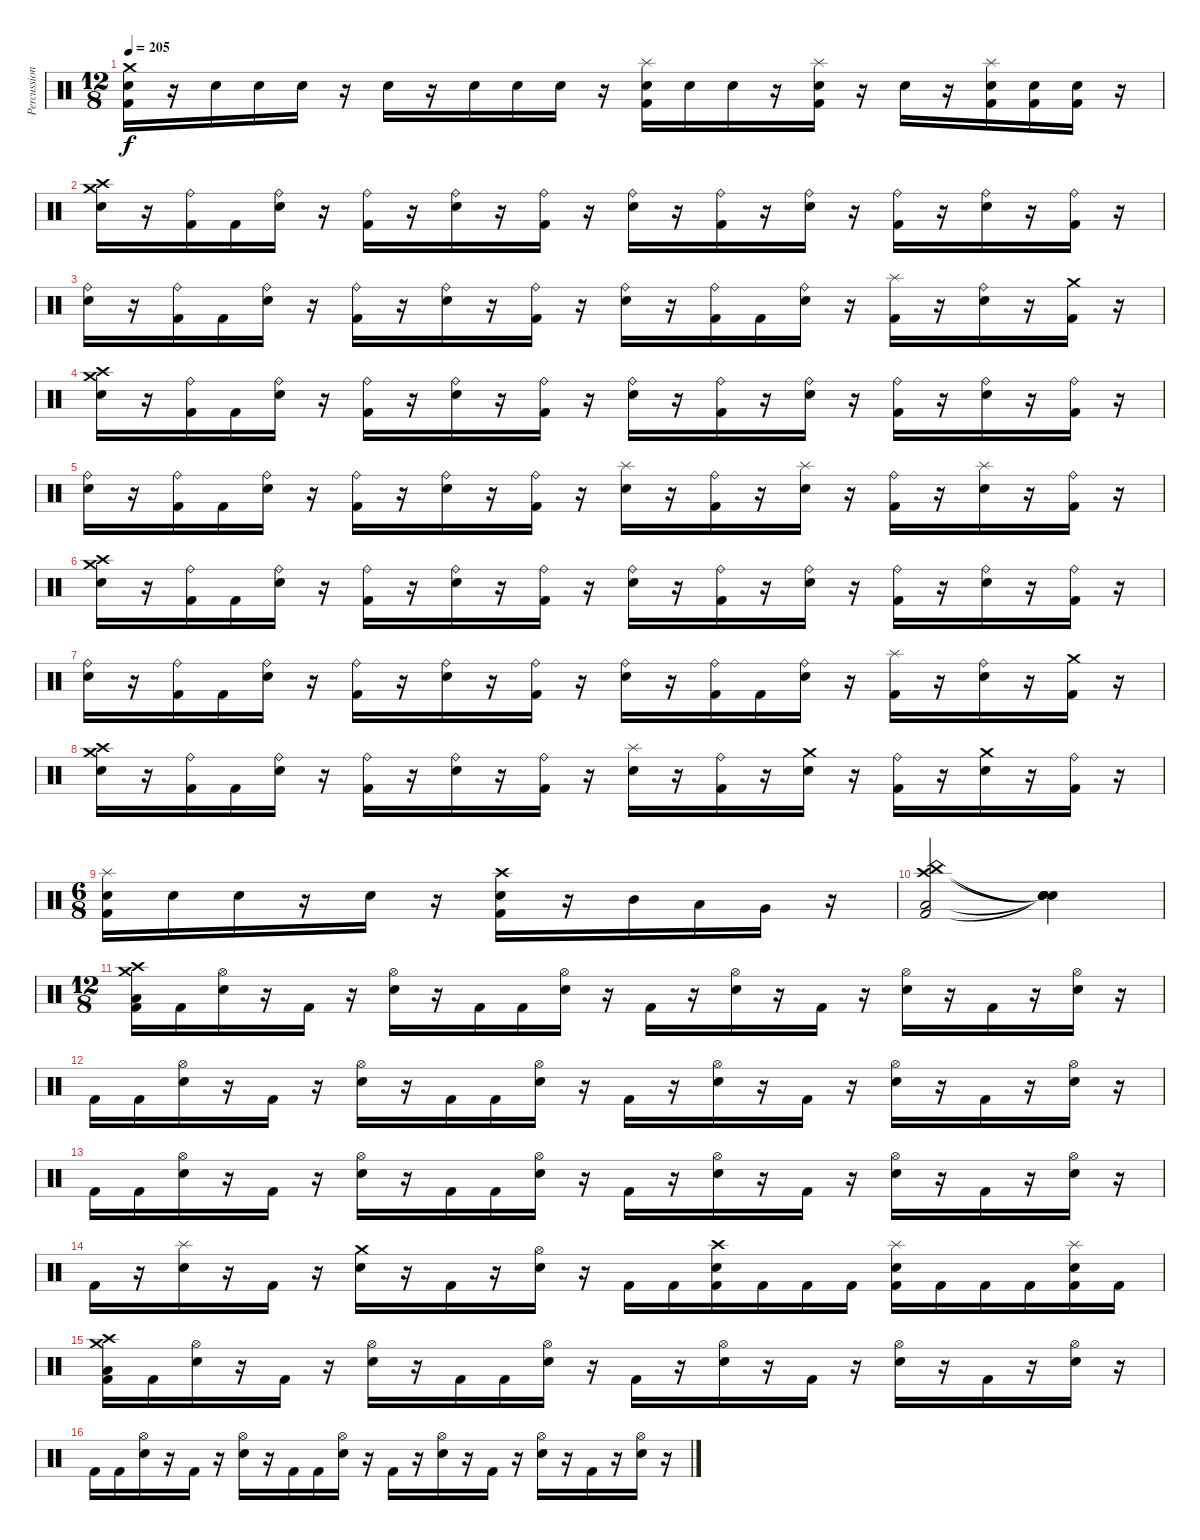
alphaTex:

\track ("Percussion" "Percussion") {instrument percussion}
\staff {score}
\articulation defaults
\ts (12 8)
\tempo 205
\clef neutral
\ks c
("Crash medium (hit)" "Electric Snare (hit)" "Kick (hit) 2").16{dy f} r.16 "Electric Snare (hit)".16 "Electric Snare (hit)".16 "Electric Snare (hit)".16 r.16 "Electric Snare (hit)".16 r.16 "Electric Snare (hit)".16 "Electric Snare (hit)".16 "Electric Snare (hit)".16 r.16 ("Splash (hit)" "Electric Snare (hit)" "Kick (hit) 2").16 "Electric Snare (hit)".16 "Electric Snare (hit)".16 r.16 ("Splash (hit)" "Electric Snare (hit)" "Kick (hit) 2").16 r.16 "Electric Snare (hit)".16 r.16 ("Splash (hit)" "Electric Snare (hit)" "Kick (hit) 2").16 ("Electric Snare (hit)" "Kick (hit) 2").16 ("Electric Snare (hit)" "Kick (hit) 2").16 r.16 |
("Crash high (hit)" "Crash medium (hit)" "Electric Snare (hit)").16 r.16 ("Ride (bell)" "Kick (hit) 2").16 "Kick (hit) 2".16 ("Ride (bell)" "Electric Snare (hit)").16 r.16 ("Ride (bell)" "Kick (hit) 2").16 r.16 ("Ride (bell)" "Electric Snare (hit)").16 r.16 ("Ride (bell)" "Kick (hit) 2").16 r.16 ("Ride (bell)" "Electric Snare (hit)").16 r.16 ("Ride (bell)" "Kick (hit) 2").16 r.16 ("Ride (bell)" "Electric Snare (hit)").16 r.16 ("Ride (bell)" "Kick (hit) 2").16 r.16 ("Ride (bell)" "Electric Snare (hit)").16 r.16 ("Ride (bell)" "Kick (hit) 2").16 r.16 |
("Ride (bell)" "Electric Snare (hit)").16 r.16 ("Ride (bell)" "Kick (hit) 2").16 "Kick (hit) 2".16 ("Ride (bell)" "Electric Snare (hit)").16 r.16 ("Ride (bell)" "Kick (hit) 2").16 r.16 ("Ride (bell)" "Electric Snare (hit)").16 r.16 ("Ride (bell)" "Kick (hit) 2").16 r.16 ("Ride (bell)" "Electric Snare (hit)").16 r.16 ("Ride (bell)" "Kick (hit) 2").16 "Kick (hit) 2".16 ("Ride (bell)" "Electric Snare (hit)").16 r.16 ("Splash (hit)" "Kick (hit) 2").16 r.16 ("Ride (bell)" "Electric Snare (hit)").16 r.16 ("Crash medium (hit)" "Kick (hit) 2").16 r.16 |
("Crash high (hit)" "Crash medium (hit)" "Electric Snare (hit)").16 r.16 ("Ride (bell)" "Kick (hit) 2").16 "Kick (hit) 2".16 ("Ride (bell)" "Electric Snare (hit)").16 r.16 ("Ride (bell)" "Kick (hit) 2").16 r.16 ("Ride (bell)" "Electric Snare (hit)").16 r.16 ("Ride (bell)" "Kick (hit) 2").16 r.16 ("Ride (bell)" "Electric Snare (hit)").16 r.16 ("Ride (bell)" "Kick (hit) 2").16 r.16 ("Ride (bell)" "Electric Snare (hit)").16 r.16 ("Ride (bell)" "Kick (hit) 2").16 r.16 ("Ride (bell)" "Electric Snare (hit)").16 r.16 ("Ride (bell)" "Kick (hit) 2").16 r.16 |
("Ride (bell)" "Electric Snare (hit)").16 r.16 ("Ride (bell)" "Kick (hit) 2").16 "Kick (hit) 2".16 ("Ride (bell)" "Electric Snare (hit)").16 r.16 ("Ride (bell)" "Kick (hit) 2").16 r.16 ("Ride (bell)" "Electric Snare (hit)").16 r.16 ("Ride (bell)" "Kick (hit) 2").16 r.16 ("Splash (hit)" "Electric Snare (hit)").16 r.16 ("Ride (bell)" "Kick (hit) 2").16 r.16 ("Splash (hit)" "Electric Snare (hit)").16 r.16 ("Ride (bell)" "Kick (hit) 2").16 r.16 ("Splash (hit)" "Electric Snare (hit)").16 r.16 ("Ride (bell)" "Kick (hit) 2").16 r.16 |
("Crash high (hit)" "Crash medium (hit)" "Electric Snare (hit)").16 r.16 ("Ride (bell)" "Kick (hit) 2").16 "Kick (hit) 2".16 ("Ride (bell)" "Electric Snare (hit)").16 r.16 ("Ride (bell)" "Kick (hit) 2").16 r.16 ("Ride (bell)" "Electric Snare (hit)").16 r.16 ("Ride (bell)" "Kick (hit) 2").16 r.16 ("Ride (bell)" "Electric Snare (hit)").16 r.16 ("Ride (bell)" "Kick (hit) 2").16 r.16 ("Ride (bell)" "Electric Snare (hit)").16 r.16 ("Ride (bell)" "Kick (hit) 2").16 r.16 ("Ride (bell)" "Electric Snare (hit)").16 r.16 ("Ride (bell)" "Kick (hit) 2").16 r.16 |
("Ride (bell)" "Electric Snare (hit)").16 r.16 ("Ride (bell)" "Kick (hit) 2").16 "Kick (hit) 2".16 ("Ride (bell)" "Electric Snare (hit)").16 r.16 ("Ride (bell)" "Kick (hit) 2").16 r.16 ("Ride (bell)" "Electric Snare (hit)").16 r.16 ("Ride (bell)" "Kick (hit) 2").16 r.16 ("Ride (bell)" "Electric Snare (hit)").16 r.16 ("Ride (bell)" "Kick (hit) 2").16 "Kick (hit) 2".16 ("Ride (bell)" "Electric Snare (hit)").16 r.16 ("Splash (hit)" "Kick (hit) 2").16 r.16 ("Ride (bell)" "Electric Snare (hit)").16 r.16 ("Crash medium (hit)" "Kick (hit) 2").16 r.16 |
("Crash high (hit)" "Crash medium (hit)" "Electric Snare (hit)").16 r.16 ("Ride (bell)" "Kick (hit) 2").16 "Kick (hit) 2".16 ("Ride (bell)" "Electric Snare (hit)").16 r.16 ("Ride (bell)" "Kick (hit) 2").16 r.16 ("Ride (bell)" "Electric Snare (hit)").16 r.16 ("Ride (bell)" "Kick (hit) 2").16 r.16 ("Splash (hit)" "Electric Snare (hit)").16 r.16 ("Ride (bell)" "Kick (hit) 2").16 r.16 ("Crash medium (hit)" "Electric Snare (hit)").16 r.16 ("Ride (bell)" "Kick (hit) 2").16 r.16 ("Crash medium (hit)" "Electric Snare (hit)").16 r.16 ("Ride (bell)" "Kick (hit) 2").16 r.16 |
\ts (6 8)
("Splash (hit)" "Electric Snare (hit)" "Kick (hit) 2").16 "Electric Snare (hit)".16 "Electric Snare (hit)".16 r.16 "Electric Snare (hit)".16 r.16 ("Crash high (hit)" "Electric Snare (hit)" "Kick (hit) 2").16 r.16 "Mid Tom (hit)".16 "Low Tom (hit)".16 "Very Low Tom (hit)".16 r.16 |
("China (hit)" "Crash high (hit)" "Low Floor Tom (hit)" "Kick (hit) 2").2 ("Snare (hit)"{t} "Snare (hit)"{t} "Snare (hit)"{t} "Snare (hit)"{t}).4 |
\ts (12 8)
("Crash high (hit)" "Crash medium (hit)" "Low Floor Tom (hit)" "Kick (hit) 2").16 "Kick (hit) 2".16 ("Hi-Hat (open)" "Electric Snare (hit)").16 r.16 "Kick (hit) 2".16 r.16 ("Hi-Hat (open)" "Electric Snare (hit)").16 r.16 "Kick (hit) 2".16 "Kick (hit) 2".16 ("Hi-Hat (open)" "Electric Snare (hit)").16 r.16 "Kick (hit) 2".16 r.16 ("Hi-Hat (open)" "Electric Snare (hit)").16 r.16 "Kick (hit) 2".16 r.16 ("Hi-Hat (open)" "Electric Snare (hit)").16 r.16 "Kick (hit) 2".16 r.16 ("Hi-Hat (open)" "Electric Snare (hit)").16 r.16 |
"Kick (hit) 2".16 "Kick (hit) 2".16 ("Hi-Hat (open)" "Electric Snare (hit)").16 r.16 "Kick (hit) 2".16 r.16 ("Hi-Hat (open)" "Electric Snare (hit)").16 r.16 "Kick (hit) 2".16 "Kick (hit) 2".16 ("Hi-Hat (open)" "Electric Snare (hit)").16 r.16 "Kick (hit) 2".16 r.16 ("Hi-Hat (open)" "Electric Snare (hit)").16 r.16 "Kick (hit) 2".16 r.16 ("Hi-Hat (open)" "Electric Snare (hit)").16 r.16 "Kick (hit) 2".16 r.16 ("Hi-Hat (open)" "Electric Snare (hit)").16 r.16 |
"Kick (hit) 2".16 "Kick (hit) 2".16 ("Hi-Hat (open)" "Electric Snare (hit)").16 r.16 "Kick (hit) 2".16 r.16 ("Hi-Hat (open)" "Electric Snare (hit)").16 r.16 "Kick (hit) 2".16 "Kick (hit) 2".16 ("Hi-Hat (open)" "Electric Snare (hit)").16 r.16 "Kick (hit) 2".16 r.16 ("Hi-Hat (open)" "Electric Snare (hit)").16 r.16 "Kick (hit) 2".16 r.16 ("Hi-Hat (open)" "Electric Snare (hit)").16 r.16 "Kick (hit) 2".16 r.16 ("Hi-Hat (open)" "Electric Snare (hit)").16 r.16 |
"Kick (hit) 2".16 r.16 ("Splash (hit)" "Electric Snare (hit)").16 r.16 "Kick (hit) 2".16 r.16 ("Crash medium (hit)" "Electric Snare (hit)").16 r.16 "Kick (hit) 2".16 r.16 ("Hi-Hat (open)" "Electric Snare (hit)").16 r.16 "Kick (hit) 2".16 "Kick (hit) 2".16 ("Crash high (hit)" "Electric Snare (hit)" "Kick (hit) 2").16 "Kick (hit) 2".16 "Kick (hit) 2".16 "Kick (hit) 2".16 ("Splash (hit)" "Electric Snare (hit)" "Kick (hit) 2").16 "Kick (hit) 2".16 "Kick (hit) 2".16 "Kick (hit) 2".16 ("Splash (hit)" "Electric Snare (hit)" "Kick (hit) 2").16 "Kick (hit) 2".16 |
("Crash high (hit)" "Crash medium (hit)" "Low Floor Tom (hit)" "Kick (hit) 2").16 "Kick (hit) 2".16 ("Hi-Hat (open)" "Electric Snare (hit)").16 r.16 "Kick (hit) 2".16 r.16 ("Hi-Hat (open)" "Electric Snare (hit)").16 r.16 "Kick (hit) 2".16 "Kick (hit) 2".16 ("Hi-Hat (open)" "Electric Snare (hit)").16 r.16 "Kick (hit) 2".16 r.16 ("Hi-Hat (open)" "Electric Snare (hit)").16 r.16 "Kick (hit) 2".16 r.16 ("Hi-Hat (open)" "Electric Snare (hit)").16 r.16 "Kick (hit) 2".16 r.16 ("Hi-Hat (open)" "Electric Snare (hit)").16 r.16 |
"Kick (hit) 2".16 "Kick (hit) 2".16 ("Hi-Hat (open)" "Electric Snare (hit)").16 r.16 "Kick (hit) 2".16 r.16 ("Hi-Hat (open)" "Electric Snare (hit)").16 r.16 "Kick (hit) 2".16 "Kick (hit) 2".16 ("Hi-Hat (open)" "Electric Snare (hit)").16 r.16 "Kick (hit) 2".16 r.16 ("Hi-Hat (open)" "Electric Snare (hit)").16 r.16 "Kick (hit) 2".16 r.16 ("Hi-Hat (open)" "Electric Snare (hit)").16 r.16 "Kick (hit) 2".16 r.16 ("Hi-Hat (open)" "Electric Snare (hit)").16 r.16
